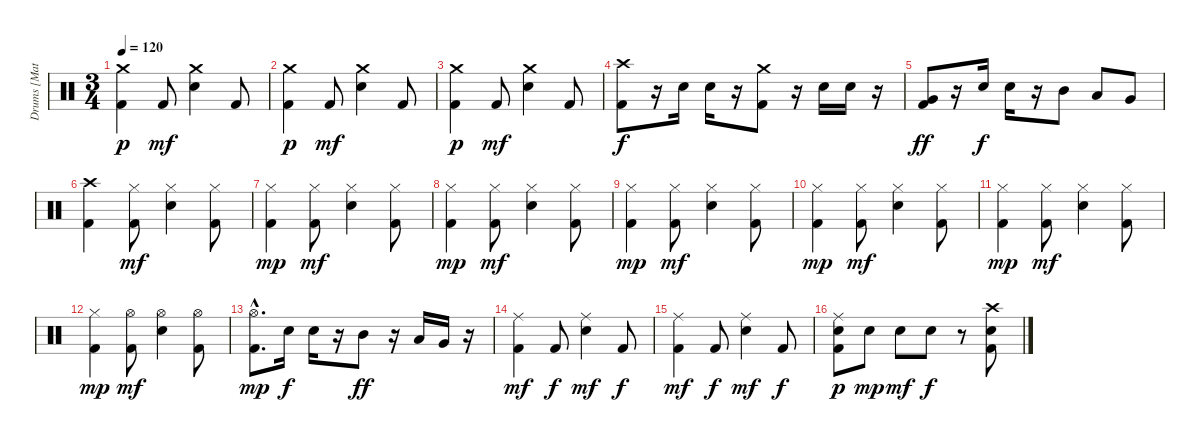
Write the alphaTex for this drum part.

\track ("Drums [Matt]" "Drums [Mat") {instrument percussion}
\staff {score}
\articulation defaults
\ts (3 4)
\tempo 120
\clef neutral
\ks c
("Crash medium (hit)" "Kick (hit) 2").4{dy p} "Kick (hit) 2".8{dy mf} ("Crash medium (hit)" "Snare (hit) 2").4 "Kick (hit) 2".8 |
("Crash medium (hit)" "Kick (hit) 2").4{dy p} "Kick (hit) 2".8{dy mf} ("Crash medium (hit)" "Snare (hit) 2").4 "Kick (hit) 2".8 |
("Crash medium (hit)" "Kick (hit) 2").4{dy p} "Kick (hit) 2".8{dy mf} ("Crash medium (hit)" "Snare (hit) 2").4 "Kick (hit) 2".8 |
("Crash high (hit)" "Kick (hit) 2").8{dy f} r.16 "Snare (hit) 2".16 "Snare (hit) 2".16 r.16 ("Crash medium (hit)" "Kick (hit) 2").8 r.16 "Snare (hit) 2".16 "Snare (hit) 2".16 r.16 |
("Very Low Tom (hit)" "Kick (hit) 2").8{dy ff} r.16 "Snare (hit) 2".16{dy f} "Snare (hit) 2".16 r.16 "Mid Tom (hit)".8 "Low Tom (hit)".8 "Very Low Tom (hit)".8 |
("Crash high (hit)" "Kick (hit) 2").4 ("Hi-Hat (closed)" "Kick (hit) 2").8{dy mf} ("Hi-Hat (closed)" "Snare (hit) 2").4 ("Hi-Hat (closed)" "Kick (hit) 2").8 |
("Hi-Hat (closed)" "Kick (hit) 2").4{dy mp} ("Hi-Hat (closed)" "Kick (hit) 2").8{dy mf} ("Hi-Hat (closed)" "Snare (hit) 2").4 ("Hi-Hat (closed)" "Kick (hit) 2").8 |
("Hi-Hat (closed)" "Kick (hit) 2").4{dy mp} ("Hi-Hat (closed)" "Kick (hit) 2").8{dy mf} ("Hi-Hat (closed)" "Snare (hit) 2").4 ("Hi-Hat (closed)" "Kick (hit) 2").8 |
("Hi-Hat (closed)" "Kick (hit) 2").4{dy mp} ("Hi-Hat (closed)" "Kick (hit) 2").8{dy mf} ("Hi-Hat (closed)" "Snare (hit) 2").4 ("Hi-Hat (closed)" "Kick (hit) 2").8 |
("Hi-Hat (closed)" "Kick (hit) 2").4{dy mp} ("Hi-Hat (closed)" "Kick (hit) 2").8{dy mf} ("Hi-Hat (closed)" "Snare (hit) 2").4 ("Hi-Hat (closed)" "Kick (hit) 2").8 |
("Hi-Hat (closed)" "Kick (hit) 2").4{dy mp} ("Hi-Hat (closed)" "Kick (hit) 2").8{dy mf} ("Hi-Hat (closed)" "Snare (hit) 2").4 ("Hi-Hat (closed)" "Kick (hit) 2").8 |
("Hi-Hat (closed)" "Kick (hit) 2").4{dy mp} ("Hi-Hat (open)" "Kick (hit) 2").8{dy mf} ("Hi-Hat (open)" "Snare (hit) 2").4 ("Hi-Hat (open)" "Kick (hit) 2").8 |
("Hi-Hat (open)"{hac} "Kick (hit) 2"{hac}).8{d dy mp} "Snare (hit) 2".16{dy f} "Snare (hit) 2".16 r.16 "Mid Tom (hit)".8{dy ff} r.16 "Low Tom (hit)".16 "Very Low Tom (hit)".16 r.16 |
("Ride (middle)" "Kick (hit) 2").4{dy mf} "Kick (hit) 2".8{dy f} ("Ride (middle)" "Snare (hit) 2").4{dy mf} "Kick (hit) 2".8{dy f} |
("Ride (middle)" "Kick (hit) 2").4{dy mf} "Kick (hit) 2".8{dy f} ("Ride (middle)" "Snare (hit) 2").4{dy mf} "Kick (hit) 2".8{dy f} |
("Ride (middle)" "Snare (hit) 2" "Kick (hit) 2").8{dy p} "Snare (hit) 2".8{dy mp} "Snare (hit) 2".8{dy mf} "Snare (hit) 2".8{dy f} r.8 ("Crash high (hit)" "Snare (hit) 2" "Kick (hit) 2").8
